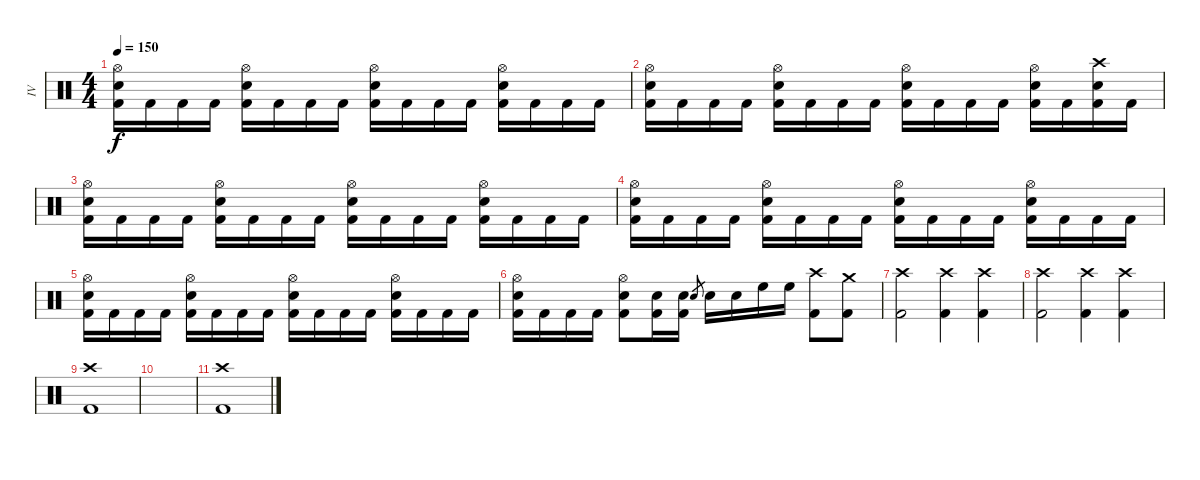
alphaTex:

\track ("IV" "IV") {instrument percussion}
\staff {score}
\articulation defaults
\ts (4 4)
\tempo 150
\clef neutral
\ks c
("Hi-Hat (open)" "Snare (hit) 2" "Kick (hit) 2").16{dy f} "Kick (hit) 2".16 "Kick (hit) 2".16 "Kick (hit) 2".16 ("Hi-Hat (open)" "Snare (hit) 2" "Kick (hit) 2").16 "Kick (hit) 2".16 "Kick (hit) 2".16 "Kick (hit) 2".16 ("Hi-Hat (open)" "Snare (hit) 2" "Kick (hit) 2").16 "Kick (hit) 2".16 "Kick (hit) 2".16 "Kick (hit) 2".16 ("Hi-Hat (open)" "Snare (hit) 2" "Kick (hit) 2").16 "Kick (hit) 2".16 "Kick (hit) 2".16 "Kick (hit) 2".16 |
("Hi-Hat (open)" "Snare (hit) 2" "Kick (hit) 2").16 "Kick (hit) 2".16 "Kick (hit) 2".16 "Kick (hit) 2".16 ("Hi-Hat (open)" "Snare (hit) 2" "Kick (hit) 2").16 "Kick (hit) 2".16 "Kick (hit) 2".16 "Kick (hit) 2".16 ("Hi-Hat (open)" "Snare (hit) 2" "Kick (hit) 2").16 "Kick (hit) 2".16 "Kick (hit) 2".16 "Kick (hit) 2".16 ("Hi-Hat (open)" "Snare (hit) 2" "Kick (hit) 2").16 "Kick (hit) 2".16 ("Crash high (hit)" "Snare (hit) 2" "Kick (hit) 2").16 "Kick (hit) 2".16 |
("Hi-Hat (open)" "Snare (hit) 2" "Kick (hit) 2").16 "Kick (hit) 2".16 "Kick (hit) 2".16 "Kick (hit) 2".16 ("Hi-Hat (open)" "Snare (hit) 2" "Kick (hit) 2").16 "Kick (hit) 2".16 "Kick (hit) 2".16 "Kick (hit) 2".16 ("Hi-Hat (open)" "Snare (hit) 2" "Kick (hit) 2").16 "Kick (hit) 2".16 "Kick (hit) 2".16 "Kick (hit) 2".16 ("Hi-Hat (open)" "Snare (hit) 2" "Kick (hit) 2").16 "Kick (hit) 2".16 "Kick (hit) 2".16 "Kick (hit) 2".16 |
("Hi-Hat (open)" "Snare (hit) 2" "Kick (hit) 2").16 "Kick (hit) 2".16 "Kick (hit) 2".16 "Kick (hit) 2".16 ("Hi-Hat (open)" "Snare (hit) 2" "Kick (hit) 2").16 "Kick (hit) 2".16 "Kick (hit) 2".16 "Kick (hit) 2".16 ("Hi-Hat (open)" "Snare (hit) 2" "Kick (hit) 2").16 "Kick (hit) 2".16 "Kick (hit) 2".16 "Kick (hit) 2".16 ("Hi-Hat (open)" "Snare (hit) 2" "Kick (hit) 2").16 "Kick (hit) 2".16 "Kick (hit) 2".16 "Kick (hit) 2".16 |
("Hi-Hat (open)" "Snare (hit) 2" "Kick (hit) 2").16 "Kick (hit) 2".16 "Kick (hit) 2".16 "Kick (hit) 2".16 ("Hi-Hat (open)" "Snare (hit) 2" "Kick (hit) 2").16 "Kick (hit) 2".16 "Kick (hit) 2".16 "Kick (hit) 2".16 ("Hi-Hat (open)" "Snare (hit) 2" "Kick (hit) 2").16 "Kick (hit) 2".16 "Kick (hit) 2".16 "Kick (hit) 2".16 ("Hi-Hat (open)" "Snare (hit) 2" "Kick (hit) 2").16 "Kick (hit) 2".16 "Kick (hit) 2".16 "Kick (hit) 2".16 |
("Hi-Hat (open)" "Snare (hit) 2" "Kick (hit) 2").16 "Kick (hit) 2".16 "Kick (hit) 2".16 "Kick (hit) 2".16 ("Hi-Hat (open)" "Snare (hit) 2" "Kick (hit) 2").8 ("Snare (hit) 2" "Kick (hit) 2").16 ("Snare (hit) 2" "Kick (hit) 2").16 "Snare (hit) 2".8{gr} "Snare (hit) 2".16 "Snare (hit) 2".16 "High Floor Tom (hit)".16 "High Floor Tom (hit)".16 ("Crash high (hit)" "Kick (hit) 2").8 ("Crash medium (hit)" "Kick (hit) 2").8 |
("Crash high (hit)" "Kick (hit) 2").2 ("Crash high (hit)" "Kick (hit) 2").4 ("Crash high (hit)" "Kick (hit) 2").4 |
("Crash high (hit)" "Kick (hit) 2").2 ("Crash high (hit)" "Kick (hit) 2").4 ("Crash high (hit)" "Kick (hit) 2").4 |
("Crash high (hit)" "Kick (hit) 2").1 |
|
("Crash high (hit)" "Kick (hit) 2").1
